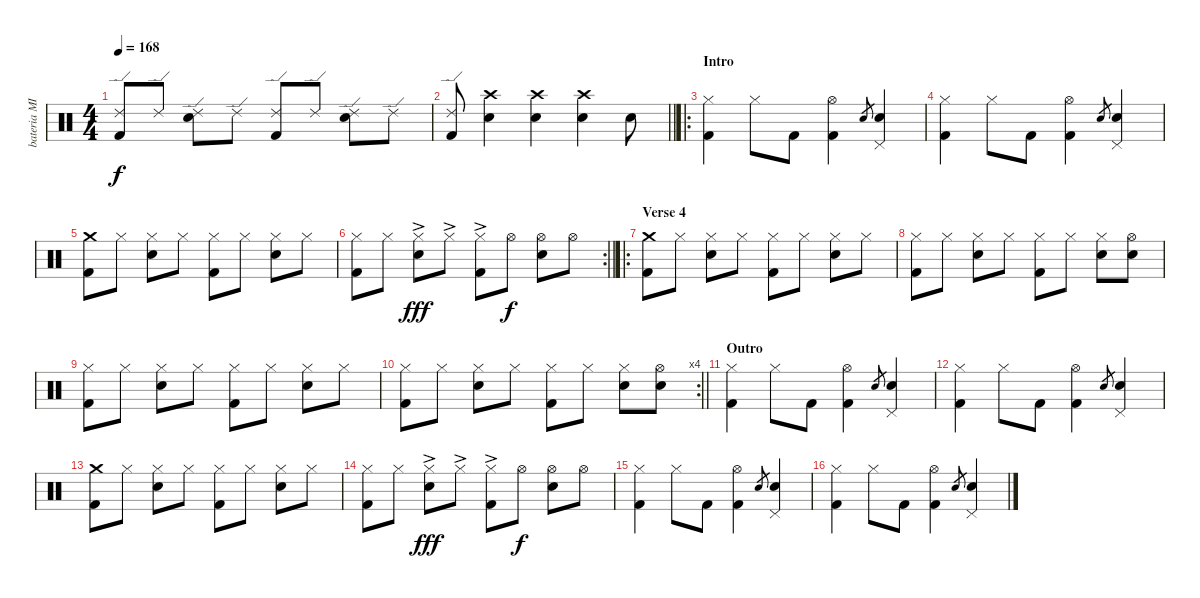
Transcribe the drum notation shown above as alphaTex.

\track ("bateria MIDI" "bateria MI") {instrument percussion}
\staff {score}
\articulation defaults
\ts (4 4)
\tempo 168
\clef neutral
\ks c
("Ride (edge) 2" "Kick (hit) 2").8{dy f} "Ride (edge) 2".8 ("Ride (edge) 2" "Snare (hit) 2").8 "Ride (edge) 2".8 ("Ride (edge) 2" "Kick (hit) 2").8 "Ride (edge) 2".8 ("Ride (edge) 2" "Snare (hit) 2").8 "Ride (edge) 2".8 |
\barLineRight lightlight
("Ride (edge) 2" "Kick (hit) 2").8 ("Crash high (hit)" "Snare (hit) 2").4 ("Crash high (hit)" "Snare (hit) 2").4 ("Crash high (hit)" "Snare (hit) 2").4 "Snare (hit) 2".8 |
\ro
\section ("" "Intro")
("Hi-Hat (closed)" "Kick (hit) 2").4 "Hi-Hat (closed)".8 "Kick (hit) 2".8 ("Hi-Hat (open)" "Kick (hit) 2").4 "Snare (hit) 2".8{gr} ("Pedal Hi-Hat (hit)" "Snare (hit) 2").4 |
("Hi-Hat (closed)" "Kick (hit) 2").4 "Hi-Hat (closed)".8 "Kick (hit) 2".8 ("Hi-Hat (open)" "Kick (hit) 2").4 "Snare (hit) 2".8{gr} ("Pedal Hi-Hat (hit)" "Snare (hit) 2").4 |
("Crash medium (hit)" "Kick (hit) 2").8 "Hi-Hat (closed)".8 ("Hi-Hat (closed)" "Snare (hit) 2").8 "Hi-Hat (closed)".8 ("Hi-Hat (closed)" "Kick (hit) 2").8 "Hi-Hat (closed)".8 ("Hi-Hat (closed)" "Snare (hit) 2").8 "Hi-Hat (closed)".8 |
\rc 2
\barLineRight lightlight
("Hi-Hat (closed)" "Kick (hit) 2").8 "Hi-Hat (closed)".8 ("Hi-Hat (closed)"{ac} "Snare (hit) 2").8{dy fff} "Hi-Hat (closed)"{ac}.8 ("Hi-Hat (closed)"{ac} "Kick (hit) 2").8 "Hi-Hat (open)".8{dy f} ("Hi-Hat (open)" "Snare (hit) 2").8 "Hi-Hat (open)".8 |
\ro
\section ("" "Verse 4")
("Crash medium (hit)" "Kick (hit) 2").8 "Hi-Hat (closed)".8 ("Hi-Hat (closed)" "Snare (hit) 2").8 "Hi-Hat (closed)".8 ("Hi-Hat (closed)" "Kick (hit) 2").8 "Hi-Hat (closed)".8 ("Hi-Hat (closed)" "Snare (hit) 2").8 "Hi-Hat (closed)".8 |
("Hi-Hat (closed)" "Kick (hit) 2").8 "Hi-Hat (closed)".8 ("Hi-Hat (closed)" "Snare (hit) 2").8 "Hi-Hat (closed)".8 ("Hi-Hat (closed)" "Kick (hit) 2").8 "Hi-Hat (closed)".8 ("Hi-Hat (closed)" "Snare (hit) 2").8 ("Hi-Hat (open)" "Snare (hit) 2").8 |
("Hi-Hat (closed)" "Kick (hit) 2").8 "Hi-Hat (closed)".8 ("Hi-Hat (closed)" "Snare (hit) 2").8 "Hi-Hat (closed)".8 ("Hi-Hat (closed)" "Kick (hit) 2").8 "Hi-Hat (closed)".8 ("Hi-Hat (closed)" "Snare (hit) 2").8 "Hi-Hat (closed)".8 |
\rc 4
\barLineRight lightlight
("Hi-Hat (closed)" "Kick (hit) 2").8 "Hi-Hat (closed)".8 ("Hi-Hat (closed)" "Snare (hit) 2").8 "Hi-Hat (closed)".8 ("Hi-Hat (closed)" "Kick (hit) 2").8 "Hi-Hat (closed)".8 ("Hi-Hat (closed)" "Snare (hit) 2").8 ("Hi-Hat (open)" "Snare (hit) 2").8 |
\section ("" "Outro")
("Hi-Hat (closed)" "Kick (hit) 2").4 "Hi-Hat (closed)".8 "Kick (hit) 2".8 ("Hi-Hat (open)" "Kick (hit) 2").4 "Snare (hit) 2".8{gr} ("Pedal Hi-Hat (hit)" "Snare (hit) 2").4 |
("Hi-Hat (closed)" "Kick (hit) 2").4 "Hi-Hat (closed)".8 "Kick (hit) 2".8 ("Hi-Hat (open)" "Kick (hit) 2").4 "Snare (hit) 2".8{gr} ("Pedal Hi-Hat (hit)" "Snare (hit) 2").4 |
("Crash medium (hit)" "Kick (hit) 2").8 "Hi-Hat (closed)".8 ("Hi-Hat (closed)" "Snare (hit) 2").8 "Hi-Hat (closed)".8 ("Hi-Hat (closed)" "Kick (hit) 2").8 "Hi-Hat (closed)".8 ("Hi-Hat (closed)" "Snare (hit) 2").8 "Hi-Hat (closed)".8 |
("Hi-Hat (closed)" "Kick (hit) 2").8 "Hi-Hat (closed)".8 ("Hi-Hat (closed)"{ac} "Snare (hit) 2").8{dy fff} "Hi-Hat (closed)"{ac}.8 ("Hi-Hat (closed)"{ac} "Kick (hit) 2").8 "Hi-Hat (open)".8{dy f} ("Hi-Hat (open)" "Snare (hit) 2").8 "Hi-Hat (open)".8 |
("Hi-Hat (closed)" "Kick (hit) 2").4 "Hi-Hat (closed)".8 "Kick (hit) 2".8 ("Hi-Hat (open)" "Kick (hit) 2").4 "Snare (hit) 2".8{gr} ("Pedal Hi-Hat (hit)" "Snare (hit) 2").4 |
("Hi-Hat (closed)" "Kick (hit) 2").4 "Hi-Hat (closed)".8 "Kick (hit) 2".8 ("Hi-Hat (open)" "Kick (hit) 2").4 "Snare (hit) 2".8{gr} ("Pedal Hi-Hat (hit)" "Snare (hit) 2").4
